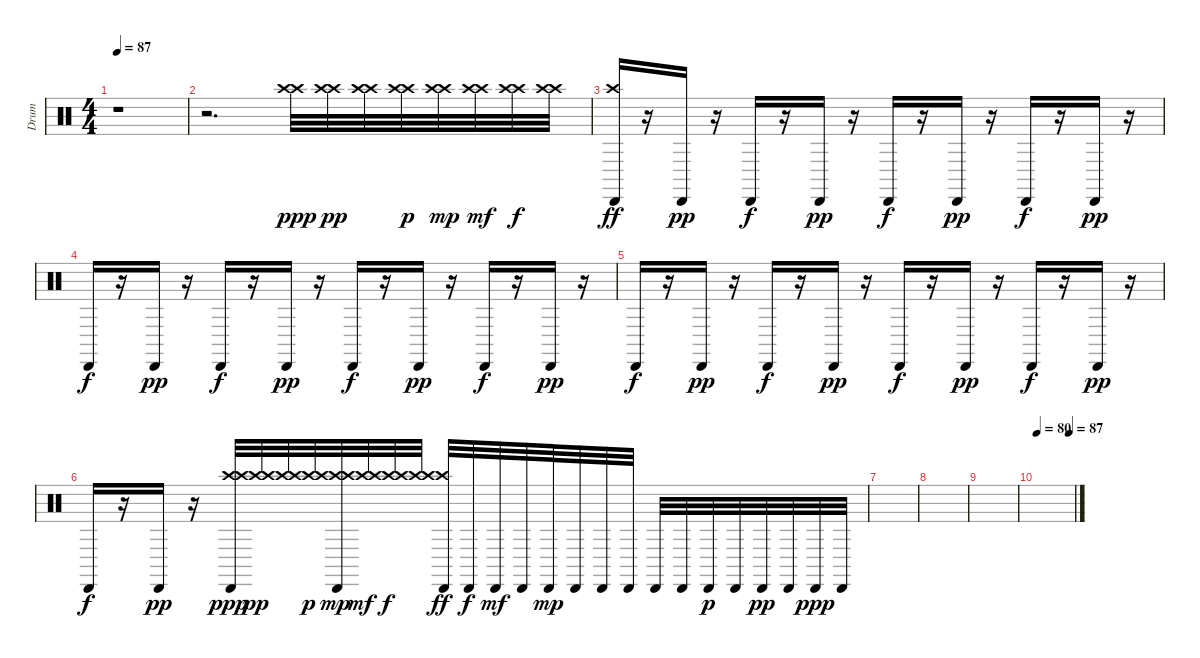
\track ("Drum" "Drum") {instrument percussion}
\staff {score}
\articulation defaults
\ts (4 4)
\tempo 87
\clef neutral
\ks c
r.1{dy ppp} |
r.2{d} ("Crash high (hit)" "Crash high (hit)").32 ("Crash high (hit)" "Crash high (hit)").32{dy pp} ("Crash high (hit)" "Crash high (hit)").32 ("Crash high (hit)" "Crash high (hit)").32{dy p} ("Crash high (hit)" "Crash high (hit)").32{dy mp} ("Crash high (hit)" "Crash high (hit)").32{dy mf} ("Crash high (hit)" "Crash high (hit)").32{dy f} ("Crash high (hit)" "Crash high (hit)").32 |
("Crash high (hit)" "Cabasa (hit)").16{dy ff} r.16 "Cabasa (hit)".16{dy pp} r.16 "Cabasa (hit)".16{dy f} r.16 "Cabasa (hit)".16{dy pp} r.16 "Cabasa (hit)".16{dy f} r.16 "Cabasa (hit)".16{dy pp} r.16 "Cabasa (hit)".16{dy f} r.16 "Cabasa (hit)".16{dy pp} r.16 |
"Cabasa (hit)".16{dy f} r.16 "Cabasa (hit)".16{dy pp} r.16 "Cabasa (hit)".16{dy f} r.16 "Cabasa (hit)".16{dy pp} r.16 "Cabasa (hit)".16{dy f} r.16 "Cabasa (hit)".16{dy pp} r.16 "Cabasa (hit)".16{dy f} r.16 "Cabasa (hit)".16{dy pp} r.16 |
"Cabasa (hit)".16{dy f} r.16 "Cabasa (hit)".16{dy pp} r.16 "Cabasa (hit)".16{dy f} r.16 "Cabasa (hit)".16{dy pp} r.16 "Cabasa (hit)".16{dy f} r.16 "Cabasa (hit)".16{dy pp} r.16 "Cabasa (hit)".16{dy f} r.16 "Cabasa (hit)".16{dy pp} r.16 |
"Cabasa (hit)".16{dy f} r.16 "Cabasa (hit)".16{dy pp} r.16 ("Cabasa (hit)" "Crash high (hit)" "Crash high (hit)").32{dy ppp} ("Crash high (hit)" "Crash high (hit)").32{dy pp} ("Crash high (hit)" "Crash high (hit)").32 ("Crash high (hit)" "Crash high (hit)").32{dy p} ("Cabasa (hit)" "Crash high (hit)" "Crash high (hit)").32{dy mp} ("Crash high (hit)" "Crash high (hit)").32{dy mf} ("Crash high (hit)" "Crash high (hit)").32{dy f} ("Crash high (hit)" "Crash high (hit)").32 ("Cabasa (hit)" "Crash high (hit)").32{dy ff} "Cabasa (hit)".32{dy f} "Cabasa (hit)".32{dy mf} "Cabasa (hit)".32 "Cabasa (hit)".32{dy mp} "Cabasa (hit)".32 "Cabasa (hit)".32 "Cabasa (hit)".32 "Cabasa (hit)".32 "Cabasa (hit)".32 "Cabasa (hit)".32{dy p} "Cabasa (hit)".32 "Cabasa (hit)".32{dy pp} "Cabasa (hit)".32 "Cabasa (hit)".32{dy ppp} "Cabasa (hit)".32 |
|
|
|
\tempo 80
\tempo (87 0.875)
